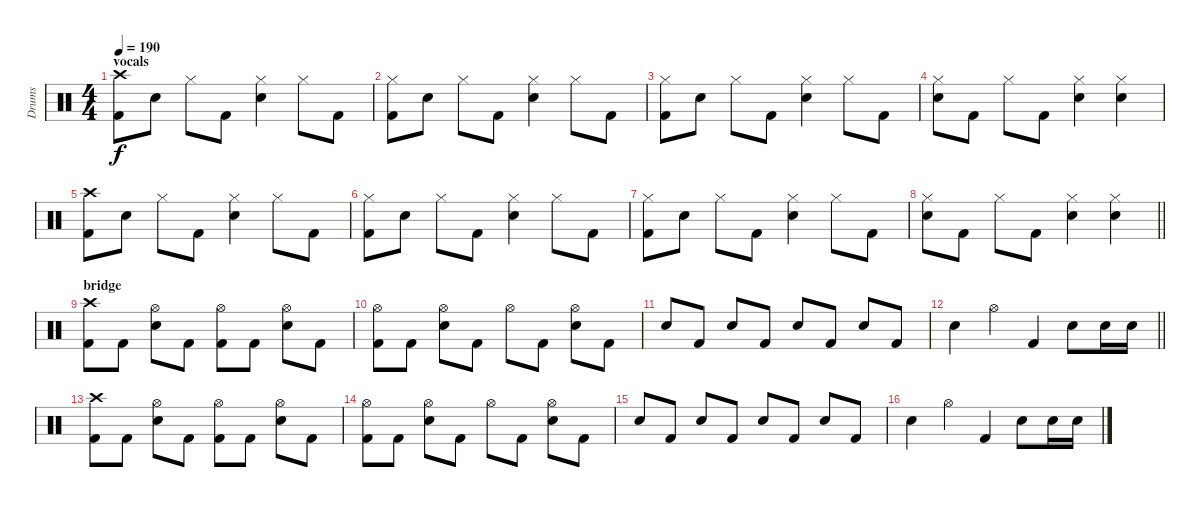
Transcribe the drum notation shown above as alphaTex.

\track ("Drums" "Drums") {instrument percussion}
\staff {score}
\articulation defaults
\ts (4 4)
\section ("" "vocals")
\tempo 190
\clef neutral
\ks c
("Crash high (hit)" "Kick (hit) 2").8{dy f} "Snare (hit) 2".8 "Hi-Hat (closed)".8 "Kick (hit) 2".8 ("Hi-Hat (closed)" "Snare (hit) 2").4 "Hi-Hat (closed)".8 "Kick (hit) 2".8 |
("Hi-Hat (closed)" "Kick (hit) 2").8 "Snare (hit) 2".8 "Hi-Hat (closed)".8 "Kick (hit) 2".8 ("Hi-Hat (closed)" "Snare (hit) 2").4 "Hi-Hat (closed)".8 "Kick (hit) 2".8 |
("Hi-Hat (closed)" "Kick (hit) 2").8 "Snare (hit) 2".8 "Hi-Hat (closed)".8 "Kick (hit) 2".8 ("Hi-Hat (closed)" "Snare (hit) 2").4 "Hi-Hat (closed)".8 "Kick (hit) 2".8 |
("Hi-Hat (closed)" "Snare (hit) 2").8 "Kick (hit) 2".8 "Hi-Hat (closed)".8 "Kick (hit) 2".8 ("Hi-Hat (closed)" "Snare (hit) 2").4 ("Hi-Hat (closed)" "Snare (hit) 2").4 |
("Crash high (hit)" "Kick (hit) 2").8 "Snare (hit) 2".8 "Hi-Hat (closed)".8 "Kick (hit) 2".8 ("Hi-Hat (closed)" "Snare (hit) 2").4 "Hi-Hat (closed)".8 "Kick (hit) 2".8 |
("Hi-Hat (closed)" "Kick (hit) 2").8 "Snare (hit) 2".8 "Hi-Hat (closed)".8 "Kick (hit) 2".8 ("Hi-Hat (closed)" "Snare (hit) 2").4 "Hi-Hat (closed)".8 "Kick (hit) 2".8 |
("Hi-Hat (closed)" "Kick (hit) 2").8 "Snare (hit) 2".8 "Hi-Hat (closed)".8 "Kick (hit) 2".8 ("Hi-Hat (closed)" "Snare (hit) 2").4 "Hi-Hat (closed)".8 "Kick (hit) 2".8 |
\barLineRight lightlight
("Hi-Hat (closed)" "Snare (hit) 2").8 "Kick (hit) 2".8 "Hi-Hat (closed)".8 "Kick (hit) 2".8 ("Hi-Hat (closed)" "Snare (hit) 2").4 ("Hi-Hat (closed)" "Snare (hit) 2").4 |
\section ("" "bridge")
("Crash high (hit)" "Kick (hit) 2").8 "Kick (hit) 2".8 ("Hi-Hat (open)" "Snare (hit) 2").8 "Kick (hit) 2".8 ("Hi-Hat (open)" "Kick (hit) 2").8 "Kick (hit) 2".8 ("Hi-Hat (open)" "Snare (hit) 2").8 "Kick (hit) 2".8 |
("Hi-Hat (open)" "Kick (hit) 2").8 "Kick (hit) 2".8 ("Hi-Hat (open)" "Snare (hit) 2").8 "Kick (hit) 2".8 "Hi-Hat (open)".8 "Kick (hit) 2".8 ("Hi-Hat (open)" "Snare (hit) 2").8 "Kick (hit) 2".8 |
"Snare (hit) 2".8 "Kick (hit) 2".8 "Snare (hit) 2".8 "Kick (hit) 2".8 "Snare (hit) 2".8 "Kick (hit) 2".8 "Snare (hit) 2".8 "Kick (hit) 2".8 |
\barLineRight lightlight "Snare (hit) 2".4 "Hi-Hat (open)".4 "Kick (hit) 2".4 "Snare (hit) 2".8 "Snare (hit) 2".16 "Snare (hit) 2".16
|
("Crash high (hit)" "Kick (hit) 2").8 "Kick (hit) 2".8 ("Hi-Hat (open)" "Snare (hit) 2").8 "Kick (hit) 2".8 ("Hi-Hat (open)" "Kick (hit) 2").8 "Kick (hit) 2".8 ("Hi-Hat (open)" "Snare (hit) 2").8 "Kick (hit) 2".8 |
("Hi-Hat (open)" "Kick (hit) 2").8 "Kick (hit) 2".8 ("Hi-Hat (open)" "Snare (hit) 2").8 "Kick (hit) 2".8 "Hi-Hat (open)".8 "Kick (hit) 2".8 ("Hi-Hat (open)" "Snare (hit) 2").8 "Kick (hit) 2".8 |
"Snare (hit) 2".8 "Kick (hit) 2".8 "Snare (hit) 2".8 "Kick (hit) 2".8 "Snare (hit) 2".8 "Kick (hit) 2".8 "Snare (hit) 2".8 "Kick (hit) 2".8 |
"Snare (hit) 2".4 "Hi-Hat (open)".4 "Kick (hit) 2".4 "Snare (hit) 2".8 "Snare (hit) 2".16 "Snare (hit) 2".16
